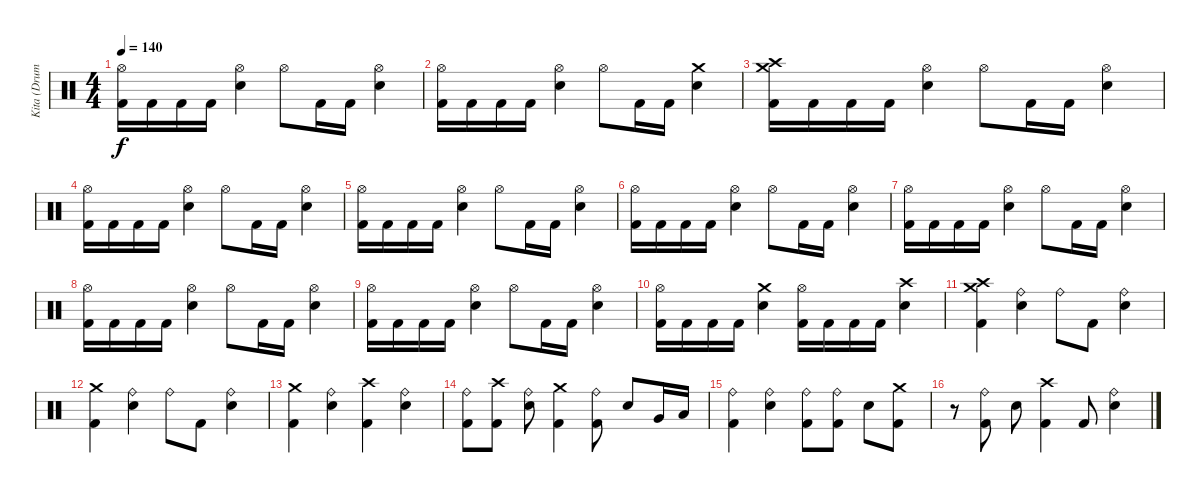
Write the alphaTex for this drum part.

\track ("Kita (Drums)" "Kita (Drum") {instrument percussion}
\staff {score}
\articulation defaults
\ts (4 4)
\tempo 140
\clef neutral
\ks c
("Hi-Hat (open)" "Kick (hit) 2").16{dy f} "Kick (hit) 2".16 "Kick (hit) 2".16 "Kick (hit) 2".16 ("Hi-Hat (open)" "Electric Snare (hit)").4 "Hi-Hat (open)".8 "Kick (hit) 2".16 "Kick (hit) 2".16 ("Hi-Hat (open)" "Electric Snare (hit)").4 |
("Hi-Hat (open)" "Kick (hit) 2").16 "Kick (hit) 2".16 "Kick (hit) 2".16 "Kick (hit) 2".16 ("Hi-Hat (open)" "Electric Snare (hit)").4 "Hi-Hat (open)".8 "Kick (hit) 2".16 "Kick (hit) 2".16 ("Crash medium (hit)" "Electric Snare (hit)").4 |
("Crash medium (hit)" "Crash high (hit)" "Kick (hit) 2").16 "Kick (hit) 2".16 "Kick (hit) 2".16 "Kick (hit) 2".16 ("Hi-Hat (open)" "Electric Snare (hit)").4 "Hi-Hat (open)".8 "Kick (hit) 2".16 "Kick (hit) 2".16 ("Hi-Hat (open)" "Electric Snare (hit)").4 |
("Hi-Hat (open)" "Kick (hit) 2").16 "Kick (hit) 2".16 "Kick (hit) 2".16 "Kick (hit) 2".16 ("Hi-Hat (open)" "Electric Snare (hit)").4 "Hi-Hat (open)".8 "Kick (hit) 2".16 "Kick (hit) 2".16 ("Hi-Hat (open)" "Electric Snare (hit)").4 |
("Hi-Hat (open)" "Kick (hit) 2").16 "Kick (hit) 2".16 "Kick (hit) 2".16 "Kick (hit) 2".16 ("Hi-Hat (open)" "Electric Snare (hit)").4 "Hi-Hat (open)".8 "Kick (hit) 2".16 "Kick (hit) 2".16 ("Hi-Hat (open)" "Electric Snare (hit)").4 |
("Hi-Hat (open)" "Kick (hit) 2").16 "Kick (hit) 2".16 "Kick (hit) 2".16 "Kick (hit) 2".16 ("Hi-Hat (open)" "Electric Snare (hit)").4 "Hi-Hat (open)".8 "Kick (hit) 2".16 "Kick (hit) 2".16 ("Hi-Hat (open)" "Electric Snare (hit)").4 |
("Hi-Hat (open)" "Kick (hit) 2").16 "Kick (hit) 2".16 "Kick (hit) 2".16 "Kick (hit) 2".16 ("Hi-Hat (open)" "Electric Snare (hit)").4 "Hi-Hat (open)".8 "Kick (hit) 2".16 "Kick (hit) 2".16 ("Hi-Hat (open)" "Electric Snare (hit)").4 |
("Hi-Hat (open)" "Kick (hit) 2").16 "Kick (hit) 2".16 "Kick (hit) 2".16 "Kick (hit) 2".16 ("Hi-Hat (open)" "Electric Snare (hit)").4 "Hi-Hat (open)".8 "Kick (hit) 2".16 "Kick (hit) 2".16 ("Hi-Hat (open)" "Electric Snare (hit)").4 |
("Hi-Hat (open)" "Kick (hit) 2").16 "Kick (hit) 2".16 "Kick (hit) 2".16 "Kick (hit) 2".16 ("Hi-Hat (open)" "Electric Snare (hit)").4 "Hi-Hat (open)".8 "Kick (hit) 2".16 "Kick (hit) 2".16 ("Hi-Hat (open)" "Electric Snare (hit)").4 |
("Hi-Hat (open)" "Kick (hit) 2").16 "Kick (hit) 2".16 "Kick (hit) 2".16 "Kick (hit) 2".16 ("Crash medium (hit)" "Electric Snare (hit)").4 ("Hi-Hat (open)" "Kick (hit) 2").16 "Kick (hit) 2".16 "Kick (hit) 2".16 "Kick (hit) 2".16 ("Crash high (hit)" "Electric Snare (hit)").4 |
("Crash medium (hit)" "Crash high (hit)" "Kick (hit) 2").4 ("Ride (bell)" "Electric Snare (hit)").4 "Ride (bell)".8 "Kick (hit) 2".8 ("Ride (bell)" "Electric Snare (hit)").4 |
("Crash medium (hit)" "Kick (hit) 2").4 ("Ride (bell)" "Electric Snare (hit)").4 "Ride (bell)".8 "Kick (hit) 2".8 ("Ride (bell)" "Electric Snare (hit)").4 |
("Crash medium (hit)" "Kick (hit) 2").4 ("Ride (bell)" "Electric Snare (hit)").4 ("Crash high (hit)" "Kick (hit) 2").4 ("Ride (bell)" "Electric Snare (hit)").4 |
("Ride (bell)" "Kick (hit) 2").8 ("Crash high (hit)" "Kick (hit) 2").8 ("Ride (bell)" "Electric Snare (hit)").8 ("Crash medium (hit)" "Kick (hit) 2").4 ("Ride (bell)" "Kick (hit) 2").8 "Electric Snare (hit)".8 "Very Low Tom (hit)".16 "Low Floor Tom (hit)".16 |
("Ride (bell)" "Kick (hit) 2").4 ("Ride (bell)" "Electric Snare (hit)").4 ("Ride (bell)" "Kick (hit) 2").8 ("Ride (bell)" "Kick (hit) 2").8 "Electric Snare (hit)".8 ("Crash medium (hit)" "Kick (hit) 2").8 |
r.8 ("Ride (bell)" "Kick (hit) 2").8 "Electric Snare (hit)".8 ("Crash high (hit)" "Kick (hit) 2").4 "Kick (hit) 2".8 ("Ride (bell)" "Electric Snare (hit)").4
